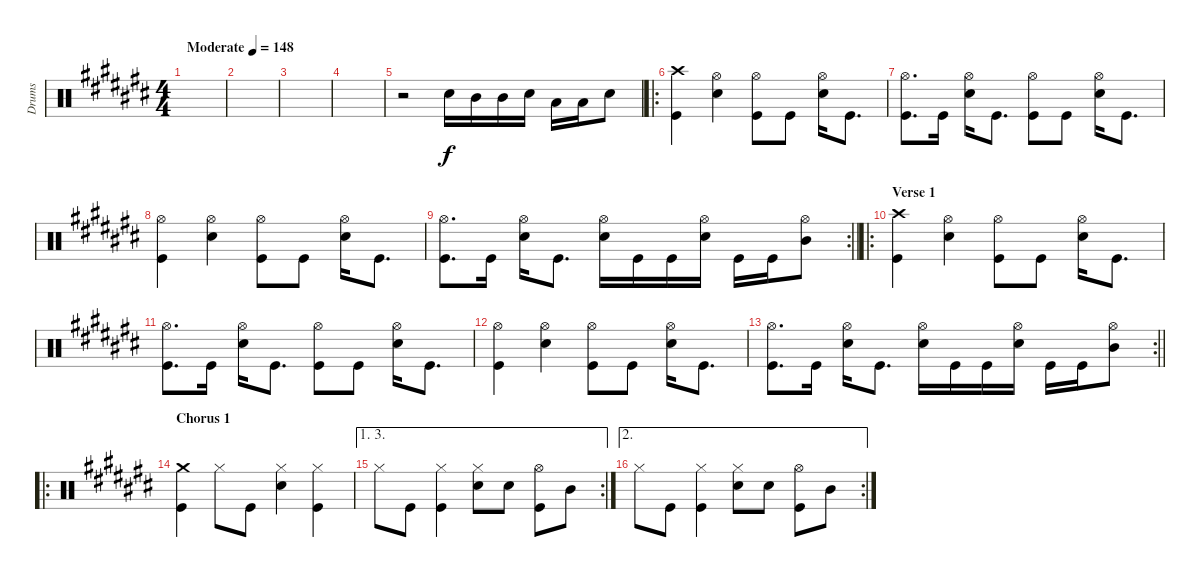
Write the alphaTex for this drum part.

\track ("Drums" "Drums") {instrument percussion}
\staff {score}
\articulation defaults
\ts (4 4)
\tempo (148 "Moderate")
\clef neutral
\ks c#
|
|
|
|
r.2 "Snare (hit) 2".16 "Mid Tom (hit)".16 "Mid Tom (hit)".16 "Snare (hit) 2".16 "Low Tom (hit)".16 "Low Tom (hit)".16 "Snare (hit) 2".8 |
\ro
("Crash high (hit)" "Kick (hit)").4 ("Hi-Hat (open)" "Snare (hit) 2").4 ("Hi-Hat (open)" "Kick (hit)").8 "Kick (hit)".8 ("Hi-Hat (open)" "Snare (hit) 2").16 "Kick (hit)".8{d} |
("Hi-Hat (open)" "Kick (hit)").8{d} "Kick (hit)".16 ("Hi-Hat (open)" "Snare (hit) 2").16 "Kick (hit)".8{d} ("Hi-Hat (open)" "Kick (hit)").8 "Kick (hit)".8 ("Hi-Hat (open)" "Snare (hit) 2").16 "Kick (hit)".8{d} |
("Hi-Hat (open)" "Kick (hit)").4 ("Hi-Hat (open)" "Snare (hit) 2").4 ("Hi-Hat (open)" "Kick (hit)").8 "Kick (hit)".8 ("Hi-Hat (open)" "Snare (hit) 2").16 "Kick (hit)".8{d} |
\rc 2
\barLineRight lightlight
("Hi-Hat (open)" "Kick (hit)").8{d} "Kick (hit)".16 ("Hi-Hat (open)" "Snare (hit) 2").16 "Kick (hit)".8{d} ("Hi-Hat (open)" "Snare (hit) 2").16 "Kick (hit)".16 "Kick (hit)".16 ("Hi-Hat (open)" "Snare (hit) 2").16 "Kick (hit)".16 "Kick (hit)".16 ("Hi-Hat (open)" "Mid Tom (hit)").8 |
\ro
\section ("" "Verse 1")
("Crash high (hit)" "Kick (hit)").4 ("Hi-Hat (open)" "Snare (hit) 2").4 ("Hi-Hat (open)" "Kick (hit)").8 "Kick (hit)".8 ("Hi-Hat (open)" "Snare (hit) 2").16 "Kick (hit)".8{d} |
("Hi-Hat (open)" "Kick (hit)").8{d} "Kick (hit)".16 ("Hi-Hat (open)" "Snare (hit) 2").16 "Kick (hit)".8{d} ("Hi-Hat (open)" "Kick (hit)").8 "Kick (hit)".8 ("Hi-Hat (open)" "Snare (hit) 2").16 "Kick (hit)".8{d} |
("Hi-Hat (open)" "Kick (hit)").4 ("Hi-Hat (open)" "Snare (hit) 2").4 ("Hi-Hat (open)" "Kick (hit)").8 "Kick (hit)".8 ("Hi-Hat (open)" "Snare (hit) 2").16 "Kick (hit)".8{d} |
\rc 2
\barLineRight lightlight
("Hi-Hat (open)" "Kick (hit)").8{d} "Kick (hit)".16 ("Hi-Hat (open)" "Snare (hit) 2").16 "Kick (hit)".8{d} ("Hi-Hat (open)" "Snare (hit) 2").16 "Kick (hit)".16 "Kick (hit)".16 ("Hi-Hat (open)" "Snare (hit) 2").16 "Kick (hit)".16 "Kick (hit)".16 ("Hi-Hat (open)" "Mid Tom (hit)").8 |
\ro
\section ("" "Chorus 1")
("Crash medium (hit)" "Kick (hit)").4 "Hi-Hat (closed)".8 "Kick (hit)".8 ("Hi-Hat (closed)" "Snare (hit) 2").4 ("Hi-Hat (closed)" "Kick (hit)").4 |
\ae (1 3)
\rc 2 "Hi-Hat (closed)".8 "Kick (hit)".8
("Hi-Hat (closed)" "Kick (hit)").4 ("Hi-Hat (closed)" "Snare (hit) 2").8 "Snare (hit) 2".8 ("Hi-Hat (open)" "Kick (hit)").8 "Mid Tom (hit)".8 |
\ae 2
\rc 2 "Hi-Hat (closed)".8 "Kick (hit)".8
("Hi-Hat (closed)" "Kick (hit)").4 ("Hi-Hat (closed)" "Snare (hit) 2").8 "Snare (hit) 2".8 ("Hi-Hat (open)" "Kick (hit)").8 "Mid Tom (hit)".8
